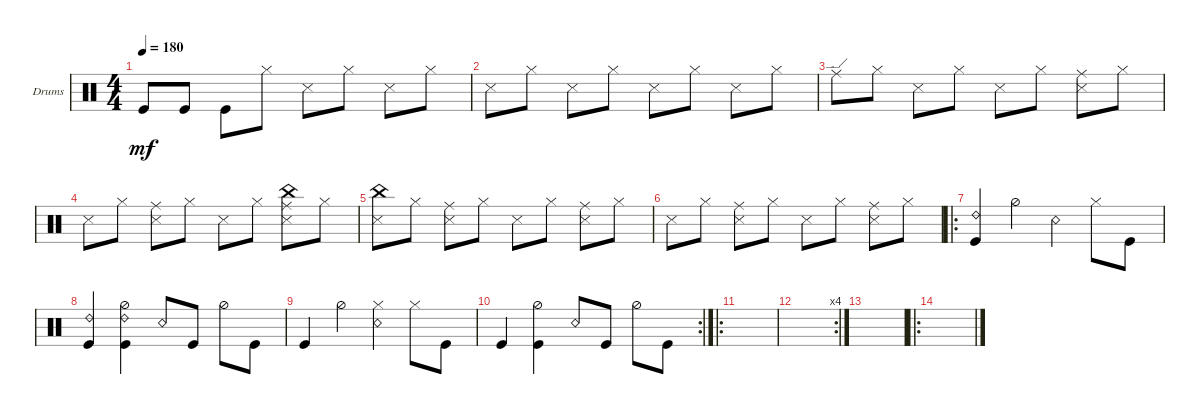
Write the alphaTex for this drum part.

\defaultSystemsLayout 4
\bracketExtendMode groupsimilarinstruments
\firstSystemTrackNameOrientation horizontal
\otherSystemsTrackNameOrientation horizontal
\track ("Drumkit" "Drums") {instrument percussion}
\staff {score}
\articulation defaults
\ts (4 4)
\tempo 180
\clef neutral
\ks c "Kick (hit)".8{dy mf} "Kick (hit)".8 "Kick (hit)".8 "Hi-Hat (closed)".8 "Snare (side stick) 3".8 "Hi-Hat (closed)".8 "Snare (side stick) 3".8 "Hi-Hat (closed)".8
|
"Snare (side stick) 3".8 "Hi-Hat (closed)".8 "Snare (side stick) 3".8 "Hi-Hat (closed)".8 "Snare (side stick) 3".8 "Hi-Hat (closed)".8 "Snare (side stick) 3".8 "Hi-Hat (closed)".8 |
"Ride (edge)".8 "Hi-Hat (closed)".8 "Snare (side stick) 3".8 "Hi-Hat (closed)".8 "Snare (side stick) 3".8 "Hi-Hat (closed)".8 ("Snare (side stick) 3" "Ride (middle)").8 "Hi-Hat (closed)".8 |
"Snare (side stick) 3".8 "Hi-Hat (closed)".8 ("Snare (side stick) 3" "Ride (middle)").8 "Hi-Hat (closed)".8 "Snare (side stick) 3".8 "Hi-Hat (closed)".8 ("Snare (side stick) 3" "Ride (middle)" "China (hit)").8 "Hi-Hat (closed)".8 |
("Snare (side stick) 3" "China (hit)").8 "Hi-Hat (closed)".8 ("Snare (side stick) 3" "Ride (middle)").8 "Hi-Hat (closed)".8 "Snare (side stick) 3".8 "Hi-Hat (closed)".8 ("Snare (side stick) 3" "Ride (middle)").8 "Hi-Hat (closed)".8 |
"Snare (side stick) 3".8 "Hi-Hat (closed)".8 ("Snare (side stick) 3" "Ride (middle)").8 "Hi-Hat (closed)".8 "Snare (side stick) 3".8 "Hi-Hat (closed)".8 ("Snare (side stick) 3" "Ride (middle)").8 "Hi-Hat (closed)".8 |
\ro
("Kick (hit)" "Ride (bell) 2").4 "Hi-Hat (half)".4 "Snare (rim shot)".4 "Hi-Hat (closed)".8 "Kick (hit)".8 |
("Kick (hit)" "Ride (bell) 2").4 ("Hi-Hat (half)" "Kick (hit)" "Ride (bell) 2").4 "Snare (rim shot)".8 "Kick (hit)".8 "Hi-Hat (half)".8 "Kick (hit)".8 |
"Kick (hit)".4 "Hi-Hat (half)".4 ("Snare (rim shot)" "Hi-Hat (closed)").4 "Hi-Hat (closed)".8 "Kick (hit)".8 |
\rc 2 "Kick (hit)".4
("Hi-Hat (half)" "Kick (hit)").4 "Snare (rim shot)".8 "Kick (hit)".8 "Hi-Hat (half)".8 "Kick (hit)".8 |
\ro
|
\rc 4
|
|
\ro
